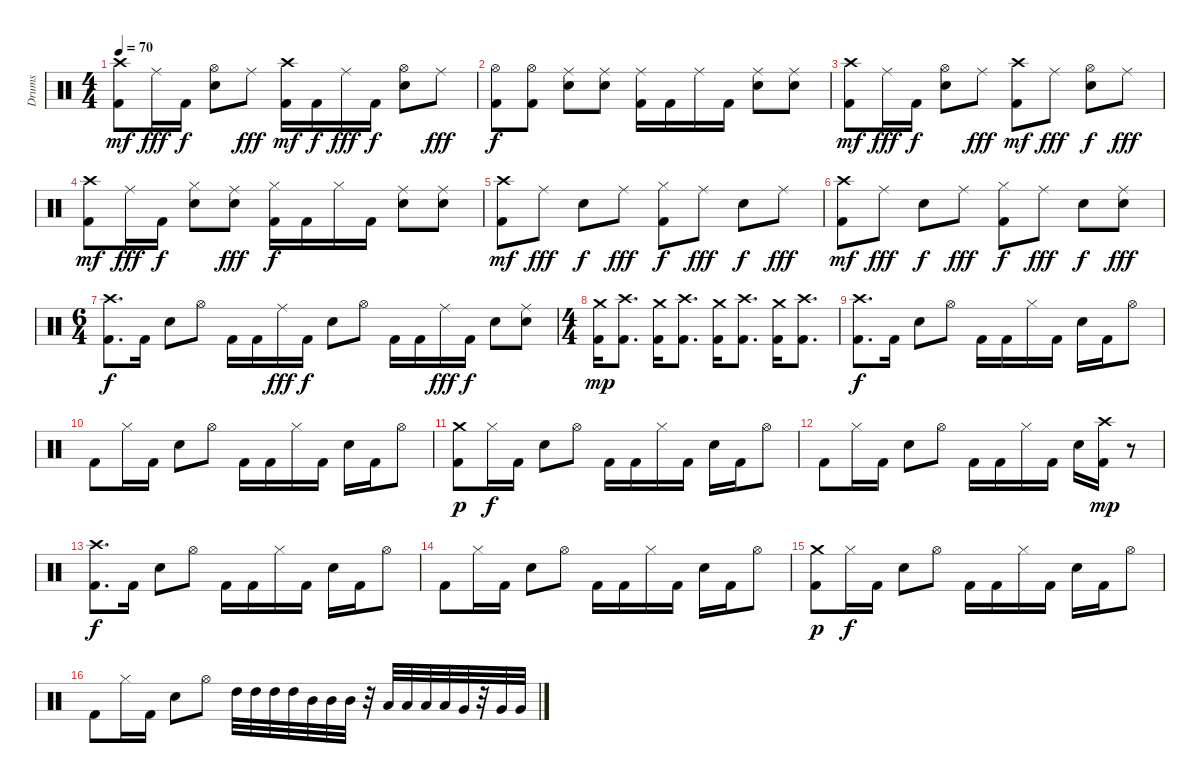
\track ("Drums" "Drums") {instrument percussion}
\staff {score}
\articulation defaults
\ts (4 4)
\tempo 70
\clef neutral
\ks c
("Kick (hit) 2" "Crash high (hit)").8{dy mf} "Ride (middle)".16{dy fff} "Kick (hit) 2".16{dy f} ("Snare (hit) 2" "Hi-Hat (open)").8 "Ride (middle)".8{dy fff} ("Kick (hit) 2" "Crash high (hit)").16{dy mf} "Kick (hit) 2".16{dy f} "Ride (middle)".16{dy fff} "Kick (hit) 2".16{dy f} ("Snare (hit) 2" "Hi-Hat (open)").8 "Ride (middle)".8{dy fff} |
("Kick (hit) 2" "Hi-Hat (open)").8{dy f} ("Kick (hit) 2" "Hi-Hat (open)").8 ("Snare (hit) 2" "Ride (middle)").8 ("Snare (hit) 2" "Ride (middle)").8 ("Kick (hit) 2" "Ride (middle)").16 "Kick (hit) 2".16 "Ride (middle)".16 "Kick (hit) 2".16 ("Snare (hit) 2" "Ride (middle)").8 ("Snare (hit) 2" "Ride (middle)").8 |
("Kick (hit) 2" "Crash high (hit)").8{dy mf} "Ride (middle)".16{dy fff} "Kick (hit) 2".16{dy f} ("Snare (hit) 2" "Hi-Hat (open)").8 "Ride (middle)".8{dy fff} ("Kick (hit) 2" "Crash high (hit)").8{dy mf} "Ride (middle)".8{dy fff} ("Snare (hit) 2" "Hi-Hat (open)").8{dy f} "Ride (middle)".8{dy fff} |
("Kick (hit) 2" "Crash high (hit)").8{dy mf} "Ride (middle)".16{dy fff} "Kick (hit) 2".16{dy f} ("Snare (hit) 2" "Hi-Hat (closed)").8 ("Snare (hit) 2" "Ride (middle)").8{dy fff} ("Kick (hit) 2" "Hi-Hat (closed)").16{dy f} "Kick (hit) 2".16 "Hi-Hat (closed)".16 "Kick (hit) 2".16 ("Snare (hit) 2" "Ride (middle)").8 ("Snare (hit) 2" "Ride (middle)").8 |
("Kick (hit) 2" "Crash high (hit)").8{dy mf} "Ride (middle)".8{dy fff} "Snare (hit) 2".8{dy f} "Ride (middle)".8{dy fff} ("Kick (hit) 2" "Hi-Hat (closed)").8{dy f} "Ride (middle)".8{dy fff} "Snare (hit) 2".8{dy f} "Ride (middle)".8{dy fff} |
("Kick (hit) 2" "Crash high (hit)").8{dy mf} "Ride (middle)".8{dy fff} "Snare (hit) 2".8{dy f} "Ride (middle)".8{dy fff} ("Kick (hit) 2" "Hi-Hat (closed)").8{dy f} "Ride (middle)".8{dy fff} "Snare (hit) 2".8{dy f} ("Snare (hit) 2" "Ride (middle)").8{dy fff} |
\ts (6 4)
("Kick (hit) 2" "Crash high (hit)").8{d dy f} "Kick (hit) 2".16 "Snare (hit) 2".8 "Hi-Hat (open)".8 "Kick (hit) 2".16 "Kick (hit) 2".16 "Ride (middle)".16{dy fff} "Kick (hit) 2".16{dy f} "Snare (hit) 2".8 "Hi-Hat (open)".8 "Kick (hit) 2".16 "Kick (hit) 2".16 "Ride (middle)".16{dy fff} "Kick (hit) 2".16{dy f} "Snare (hit) 2".8 ("Snare (hit) 2" "Ride (middle)").8 |
\ts (4 4)
("Kick (hit) 2" "Crash medium (hit)").16{dy mp} ("Kick (hit) 2" "Crash high (hit)").8{d} ("Kick (hit) 2" "Crash medium (hit)").16 ("Kick (hit) 2" "Crash high (hit)").8{d} ("Kick (hit) 2" "Crash medium (hit)").16 ("Kick (hit) 2" "Crash high (hit)").8{d} ("Kick (hit) 2" "Crash medium (hit)").16 ("Kick (hit) 2" "Crash high (hit)").8{d} |
("Kick (hit) 2" "Crash high (hit)").8{d dy f} "Kick (hit) 2".16 "Snare (hit) 2".8 "Hi-Hat (open)".8 "Kick (hit) 2".16 "Kick (hit) 2".16 "Hi-Hat (closed)".16 "Kick (hit) 2".16 "Snare (hit) 2".16 "Kick (hit) 2".16 "Hi-Hat (open)".8 |
"Kick (hit) 2".8 "Hi-Hat (closed)".16 "Kick (hit) 2".16 "Snare (hit) 2".8 "Hi-Hat (open)".8 "Kick (hit) 2".16 "Kick (hit) 2".16 "Hi-Hat (closed)".16 "Kick (hit) 2".16 "Snare (hit) 2".16 "Kick (hit) 2".16 "Hi-Hat (open)".8 |
("Kick (hit) 2" "Crash medium (hit)").8{dy p} "Hi-Hat (closed)".16{dy f} "Kick (hit) 2".16 "Snare (hit) 2".8 "Hi-Hat (open)".8 "Kick (hit) 2".16 "Kick (hit) 2".16 "Hi-Hat (closed)".16 "Kick (hit) 2".16 "Snare (hit) 2".16 "Kick (hit) 2".16 "Hi-Hat (open)".8 |
"Kick (hit) 2".8 "Hi-Hat (closed)".16 "Kick (hit) 2".16 "Snare (hit) 2".8 "Hi-Hat (open)".8 "Kick (hit) 2".16 "Kick (hit) 2".16 "Hi-Hat (closed)".16 "Kick (hit) 2".16 "Snare (hit) 2".16 ("Kick (hit) 2" "Crash high (hit)").16{dy mp} r.8 |
("Kick (hit) 2" "Crash high (hit)").8{d dy f} "Kick (hit) 2".16 "Snare (hit) 2".8 "Hi-Hat (open)".8 "Kick (hit) 2".16 "Kick (hit) 2".16 "Hi-Hat (closed)".16 "Kick (hit) 2".16 "Snare (hit) 2".16 "Kick (hit) 2".16 "Hi-Hat (open)".8 |
"Kick (hit) 2".8 "Hi-Hat (closed)".16 "Kick (hit) 2".16 "Snare (hit) 2".8 "Hi-Hat (open)".8 "Kick (hit) 2".16 "Kick (hit) 2".16 "Hi-Hat (closed)".16 "Kick (hit) 2".16 "Snare (hit) 2".16 "Kick (hit) 2".16 "Hi-Hat (open)".8 |
("Kick (hit) 2" "Crash medium (hit)").8{dy p} "Hi-Hat (closed)".16{dy f} "Kick (hit) 2".16 "Snare (hit) 2".8 "Hi-Hat (open)".8 "Kick (hit) 2".16 "Kick (hit) 2".16 "Hi-Hat (closed)".16 "Kick (hit) 2".16 "Snare (hit) 2".16 "Kick (hit) 2".16 "Hi-Hat (open)".8 |
"Kick (hit) 2".8 "Hi-Hat (closed)".16 "Kick (hit) 2".16 "Snare (hit) 2".8 "Hi-Hat (open)".8 "High Tom (hit)".32 "High Tom (hit)".32 "High Tom (hit)".32 "High Tom (hit)".32 "Mid Tom (hit)".32 "Mid Tom (hit)".32 "Mid Tom (hit)".32 r.32 "Low Tom (hit)".32 "Low Tom (hit)".32 "Low Tom (hit)".32 "Low Tom (hit)".32 "Very Low Tom (hit)".32 r.32 "Very Low Tom (hit)".32 "Very Low Tom (hit)".32
